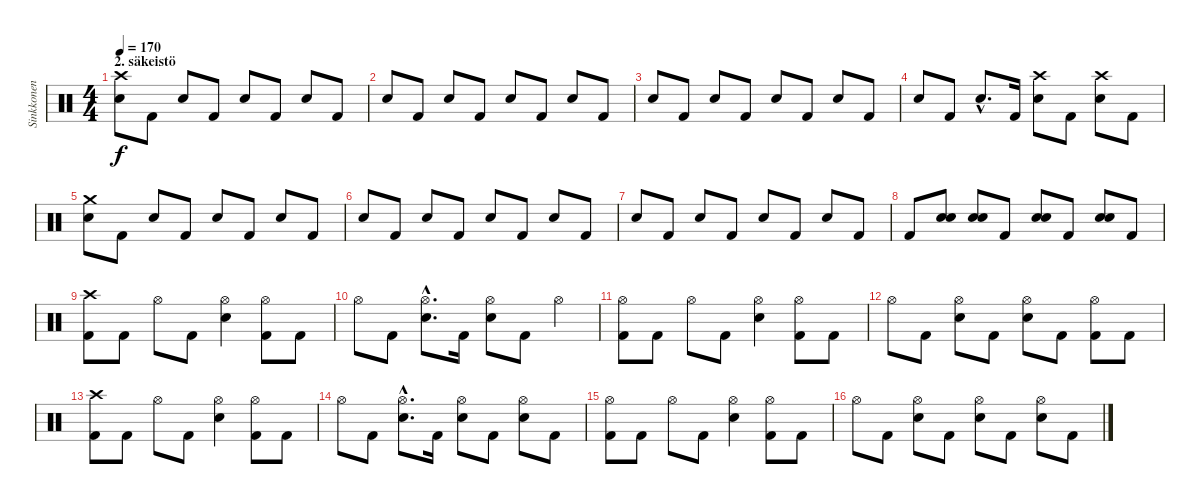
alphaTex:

\track ("Sinkkonen" "Sinkkonen") {instrument percussion}
\staff {score}
\articulation defaults
\ts (4 4)
\section ("" "2. säkeistö")
\tempo 170
\clef neutral
\ks c
("Crash high (hit)" "Electric Snare (hit)").8{dy f} "Kick (hit) 2".8 "Electric Snare (hit)".8 "Kick (hit) 2".8 "Electric Snare (hit)".8 "Kick (hit) 2".8 "Electric Snare (hit)".8 "Kick (hit) 2".8 |
"Electric Snare (hit)".8 "Kick (hit) 2".8 "Electric Snare (hit)".8 "Kick (hit) 2".8 "Electric Snare (hit)".8 "Kick (hit) 2".8 "Electric Snare (hit)".8 "Kick (hit) 2".8 |
"Electric Snare (hit)".8 "Kick (hit) 2".8 "Electric Snare (hit)".8 "Kick (hit) 2".8 "Electric Snare (hit)".8 "Kick (hit) 2".8 "Electric Snare (hit)".8 "Kick (hit) 2".8 |
"Electric Snare (hit)".8 "Kick (hit) 2".8 "Electric Snare (hit)"{hac}.8{d} "Kick (hit) 2".16 ("Crash high (hit)" "Electric Snare (hit)").8 "Kick (hit) 2".8 ("Crash high (hit)" "Electric Snare (hit)").8 "Kick (hit) 2".8 |
("Crash medium (hit)" "Electric Snare (hit)").8 "Kick (hit) 2".8 "Electric Snare (hit)".8 "Kick (hit) 2".8 "Electric Snare (hit)".8 "Kick (hit) 2".8 "Electric Snare (hit)".8 "Kick (hit) 2".8 |
"Electric Snare (hit)".8 "Kick (hit) 2".8 "Electric Snare (hit)".8 "Kick (hit) 2".8 "Electric Snare (hit)".8 "Kick (hit) 2".8 "Electric Snare (hit)".8 "Kick (hit) 2".8 |
"Electric Snare (hit)".8 "Kick (hit) 2".8 "Electric Snare (hit)".8 "Kick (hit) 2".8 "Electric Snare (hit)".8 "Kick (hit) 2".8 "Electric Snare (hit)".8 "Kick (hit) 2".8 |
"Kick (hit) 2".8 ("Electric Snare (hit)" "Snare (hit) 2").8 ("Electric Snare (hit)" "Snare (hit) 2").8 "Kick (hit) 2".8 ("Electric Snare (hit)" "Snare (hit) 2").8 "Kick (hit) 2".8 ("Electric Snare (hit)" "Snare (hit) 2").8 "Kick (hit) 2".8 |
("Crash high (hit)" "Kick (hit) 2").8 "Kick (hit) 2".8 "Hi-Hat (open)".8 "Kick (hit) 2".8 ("Hi-Hat (open)" "Electric Snare (hit)").4 ("Hi-Hat (open)" "Kick (hit) 2").8 "Kick (hit) 2".8 |
"Hi-Hat (open)".8 "Kick (hit) 2".8 ("Hi-Hat (open)"{hac} "Electric Snare (hit)"{hac}).8{d} "Kick (hit) 2".16 ("Hi-Hat (open)" "Electric Snare (hit)").8 "Kick (hit) 2".8 "Hi-Hat (open)".4 |
("Hi-Hat (open)" "Kick (hit) 2").8 "Kick (hit) 2".8 "Hi-Hat (open)".8 "Kick (hit) 2".8 ("Hi-Hat (open)" "Electric Snare (hit)").4 ("Hi-Hat (open)" "Kick (hit) 2").8 "Kick (hit) 2".8 |
"Hi-Hat (open)".8 "Kick (hit) 2".8 ("Hi-Hat (open)" "Electric Snare (hit)").8 "Kick (hit) 2".8 ("Hi-Hat (open)" "Electric Snare (hit)").8 "Kick (hit) 2".8 ("Hi-Hat (open)" "Kick (hit) 2").8 "Kick (hit) 2".8 |
("Crash high (hit)" "Kick (hit) 2").8 "Kick (hit) 2".8 "Hi-Hat (open)".8 "Kick (hit) 2".8 ("Hi-Hat (open)" "Electric Snare (hit)").4 ("Hi-Hat (open)" "Kick (hit) 2").8 "Kick (hit) 2".8 |
"Hi-Hat (open)".8 "Kick (hit) 2".8 ("Hi-Hat (open)"{hac} "Electric Snare (hit)"{hac}).8{d} "Kick (hit) 2".16 ("Hi-Hat (open)" "Electric Snare (hit)").8 "Kick (hit) 2".8 ("Hi-Hat (open)" "Electric Snare (hit)").8 "Kick (hit) 2".8 |
("Hi-Hat (open)" "Kick (hit) 2").8 "Kick (hit) 2".8 "Hi-Hat (open)".8 "Kick (hit) 2".8 ("Hi-Hat (open)" "Electric Snare (hit)").4 ("Hi-Hat (open)" "Kick (hit) 2").8 "Kick (hit) 2".8 |
"Hi-Hat (open)".8 "Kick (hit) 2".8 ("Hi-Hat (open)" "Electric Snare (hit)").8 "Kick (hit) 2".8 ("Hi-Hat (open)" "Electric Snare (hit)").8 "Kick (hit) 2".8 ("Hi-Hat (open)" "Electric Snare (hit)").8 "Kick (hit) 2".8
